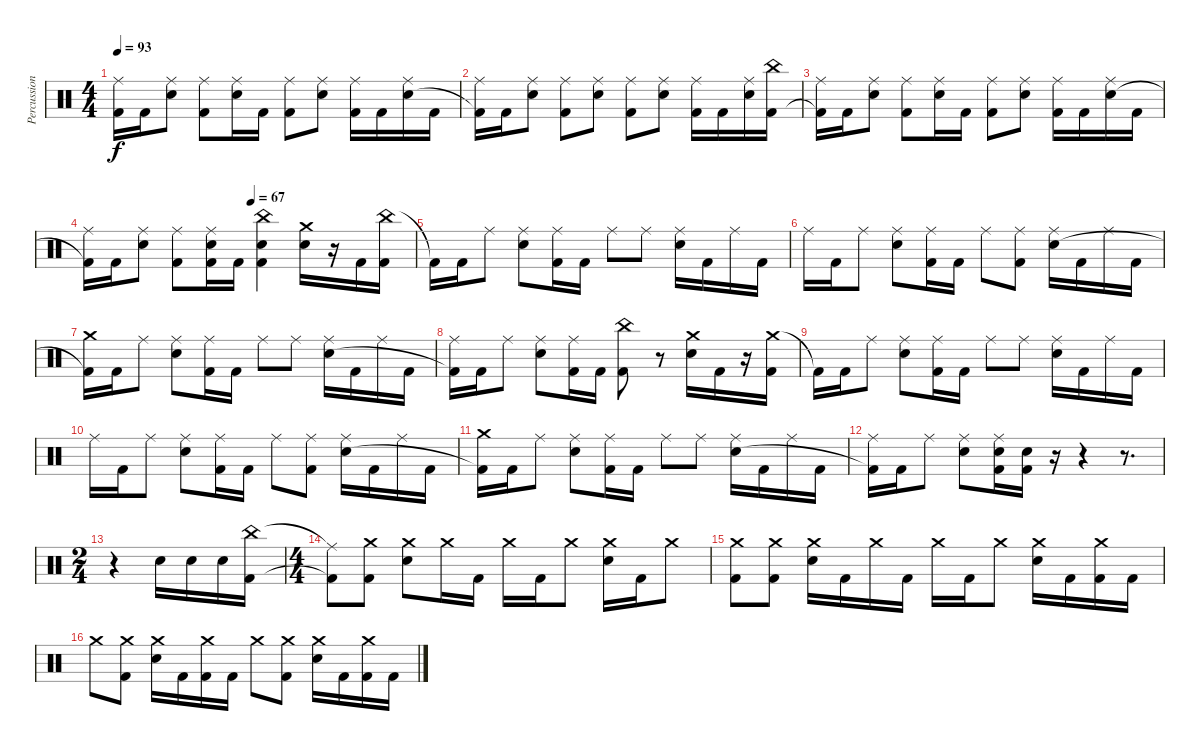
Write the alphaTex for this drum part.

\track ("Percussion" "Percussion") {instrument percussion}
\staff {score}
\articulation defaults
\ts (4 4)
\tempo 93
\clef neutral
\ks c
("Ride (middle)" "Kick (hit) 2"{t}).16{dy f} "Kick (hit) 2".16 ("Ride (middle)" "Electric Snare (hit)").8 ("Ride (middle)" "Kick (hit) 2").8 ("Ride (middle)" "Electric Snare (hit)").16 "Kick (hit) 2".16 ("Ride (middle)" "Kick (hit) 2").8 ("Ride (middle)" "Electric Snare (hit)").8 ("Ride (middle)" "Kick (hit) 2").16 "Kick (hit) 2".16 ("Ride (middle)" "Electric Snare (hit)").16 "Kick (hit) 2".16 |
("Ride (middle)" "Kick (hit) 2"{t}).16 "Kick (hit) 2".16 ("Ride (middle)" "Electric Snare (hit)").8 ("Ride (middle)" "Kick (hit) 2").8 ("Ride (middle)" "Electric Snare (hit)").8 ("Ride (middle)" "Kick (hit) 2").8 ("Ride (middle)" "Electric Snare (hit)").8 ("Ride (middle)" "Kick (hit) 2").16 "Kick (hit) 2".16 ("Ride (middle)" "Electric Snare (hit)").16 ("China (hit)" "Kick (hit) 2").16 |
("Ride (middle)" "Kick (hit) 2"{t}).16 "Kick (hit) 2".16 ("Ride (middle)" "Electric Snare (hit)").8 ("Ride (middle)" "Kick (hit) 2").8 ("Ride (middle)" "Electric Snare (hit)").16 "Kick (hit) 2".16 ("Ride (middle)" "Kick (hit) 2").8 ("Ride (middle)" "Electric Snare (hit)").8 ("Ride (middle)" "Kick (hit) 2").16 "Kick (hit) 2".16 ("Ride (middle)" "Electric Snare (hit)").16 "Kick (hit) 2".16 |
\tempo (67 0.5)
("Ride (middle)" "Kick (hit) 2"{t}).16 "Kick (hit) 2".16 ("Ride (middle)" "Electric Snare (hit)").8 ("Ride (middle)" "Kick (hit) 2").8 ("Ride (middle)" "Electric Snare (hit)" "Kick (hit) 2").16 "Kick (hit) 2".16 ("China (hit)" "Electric Snare (hit)" "Kick (hit) 2").4 ("Crash medium (hit)" "Electric Snare (hit)").16 r.16 "Kick (hit) 2".16 ("China (hit)" "Kick (hit) 2").16 |
"Kick (hit) 2"{t}.16 "Kick (hit) 2".16 "Ride (middle)".8 ("Ride (middle)" "Electric Snare (hit)").8 ("Ride (middle)" "Kick (hit) 2").16 "Kick (hit) 2".16 "Ride (middle)".8 "Ride (middle)".8 ("Ride (middle)" "Electric Snare (hit)").16 "Kick (hit) 2".16 "Ride (middle)".16 "Kick (hit) 2".16 |
"Ride (middle)".16 "Kick (hit) 2".16 "Ride (middle)".8 ("Ride (middle)" "Electric Snare (hit)").8 ("Ride (middle)" "Kick (hit) 2").16 "Kick (hit) 2".16 "Ride (middle)".8 ("Ride (middle)" "Kick (hit) 2").8 ("Ride (middle)" "Electric Snare (hit)").16 "Kick (hit) 2".16 "Ride (middle)".16 "Kick (hit) 2".16 |
("Crash medium (hit)" "Kick (hit) 2"{t}).16 "Kick (hit) 2".16 "Ride (middle)".8 ("Ride (middle)" "Electric Snare (hit)").8 ("Ride (middle)" "Kick (hit) 2").16 "Kick (hit) 2".16 "Ride (middle)".8 "Ride (middle)".8 ("Ride (middle)" "Electric Snare (hit)").16 "Kick (hit) 2".16 "Ride (middle)".16 "Kick (hit) 2".16 |
("Ride (middle)" "Kick (hit) 2"{t}).16 "Kick (hit) 2".16 "Ride (middle)".8 ("Ride (middle)" "Electric Snare (hit)").8 ("Ride (middle)" "Kick (hit) 2").16 "Kick (hit) 2".16 ("China (hit)" "Kick (hit) 2").8 r.8 ("Crash medium (hit)" "Electric Snare (hit)").16 "Kick (hit) 2".16 r.16 ("Crash medium (hit)" "Kick (hit) 2").16 |
"Kick (hit) 2"{t}.16 "Kick (hit) 2".16 "Ride (middle)".8 ("Ride (middle)" "Electric Snare (hit)").8 ("Ride (middle)" "Kick (hit) 2").16 "Kick (hit) 2".16 "Ride (middle)".8 "Ride (middle)".8 ("Ride (middle)" "Electric Snare (hit)").16 "Kick (hit) 2".16 "Ride (middle)".16 "Kick (hit) 2".16 |
"Ride (middle)".16 "Kick (hit) 2".16 "Ride (middle)".8 ("Ride (middle)" "Electric Snare (hit)").8 ("Ride (middle)" "Kick (hit) 2").16 "Kick (hit) 2".16 "Ride (middle)".8 ("Ride (middle)" "Kick (hit) 2").8 ("Ride (middle)" "Electric Snare (hit)").16 "Kick (hit) 2".16 "Ride (middle)".16 "Kick (hit) 2".16 |
("Crash medium (hit)" "Kick (hit) 2"{t}).16 "Kick (hit) 2".16 "Ride (middle)".8 ("Ride (middle)" "Electric Snare (hit)").8 ("Ride (middle)" "Kick (hit) 2").16 "Kick (hit) 2".16 "Ride (middle)".8 "Ride (middle)".8 ("Ride (middle)" "Electric Snare (hit)").16 "Kick (hit) 2".16 "Ride (middle)".16 "Kick (hit) 2".16 |
("Ride (middle)" "Kick (hit) 2"{t}).16 "Kick (hit) 2".16 "Ride (middle)".8 ("Ride (middle)" "Electric Snare (hit)").8 ("Ride (middle)" "Electric Snare (hit)" "Kick (hit) 2").16 ("Electric Snare (hit)" "Kick (hit) 2").16 r.16 r.4 r.8{d} |
\ts (2 4)
r.4 "Electric Snare (hit)".16 "Electric Snare (hit)".16 "Electric Snare (hit)".16 ("China (hit)" "Kick (hit) 2").16 |
\ts (4 4)
("Ride (middle)"{t} "Kick (hit) 2"{t}).8 ("Crash medium (hit)" "Kick (hit) 2").8 ("Crash medium (hit)" "Electric Snare (hit)").8 "Crash medium (hit)".16 "Kick (hit) 2".16 "Crash medium (hit)".16 "Kick (hit) 2".16 "Crash medium (hit)".8 ("Crash medium (hit)" "Electric Snare (hit)").16 "Kick (hit) 2".16 "Crash medium (hit)".8 |
("Crash medium (hit)" "Kick (hit) 2").8 ("Crash medium (hit)" "Kick (hit) 2").8 ("Crash medium (hit)" "Electric Snare (hit)").16 "Kick (hit) 2".16 "Crash medium (hit)".16 "Kick (hit) 2".16 "Crash medium (hit)".16 "Kick (hit) 2".16 "Crash medium (hit)".8 ("Crash medium (hit)" "Electric Snare (hit)").16 "Kick (hit) 2".16 ("Crash medium (hit)" "Kick (hit) 2").16 "Kick (hit) 2".16 |
"Crash medium (hit)".8 ("Crash medium (hit)" "Kick (hit) 2").8 ("Crash medium (hit)" "Electric Snare (hit)").16 "Kick (hit) 2".16 ("Crash medium (hit)" "Kick (hit) 2").16 "Kick (hit) 2".16 "Crash medium (hit)".8 ("Crash medium (hit)" "Kick (hit) 2").8 ("Crash medium (hit)" "Electric Snare (hit)").16 "Kick (hit) 2".16 ("Crash medium (hit)" "Kick (hit) 2").16 "Kick (hit) 2".16
